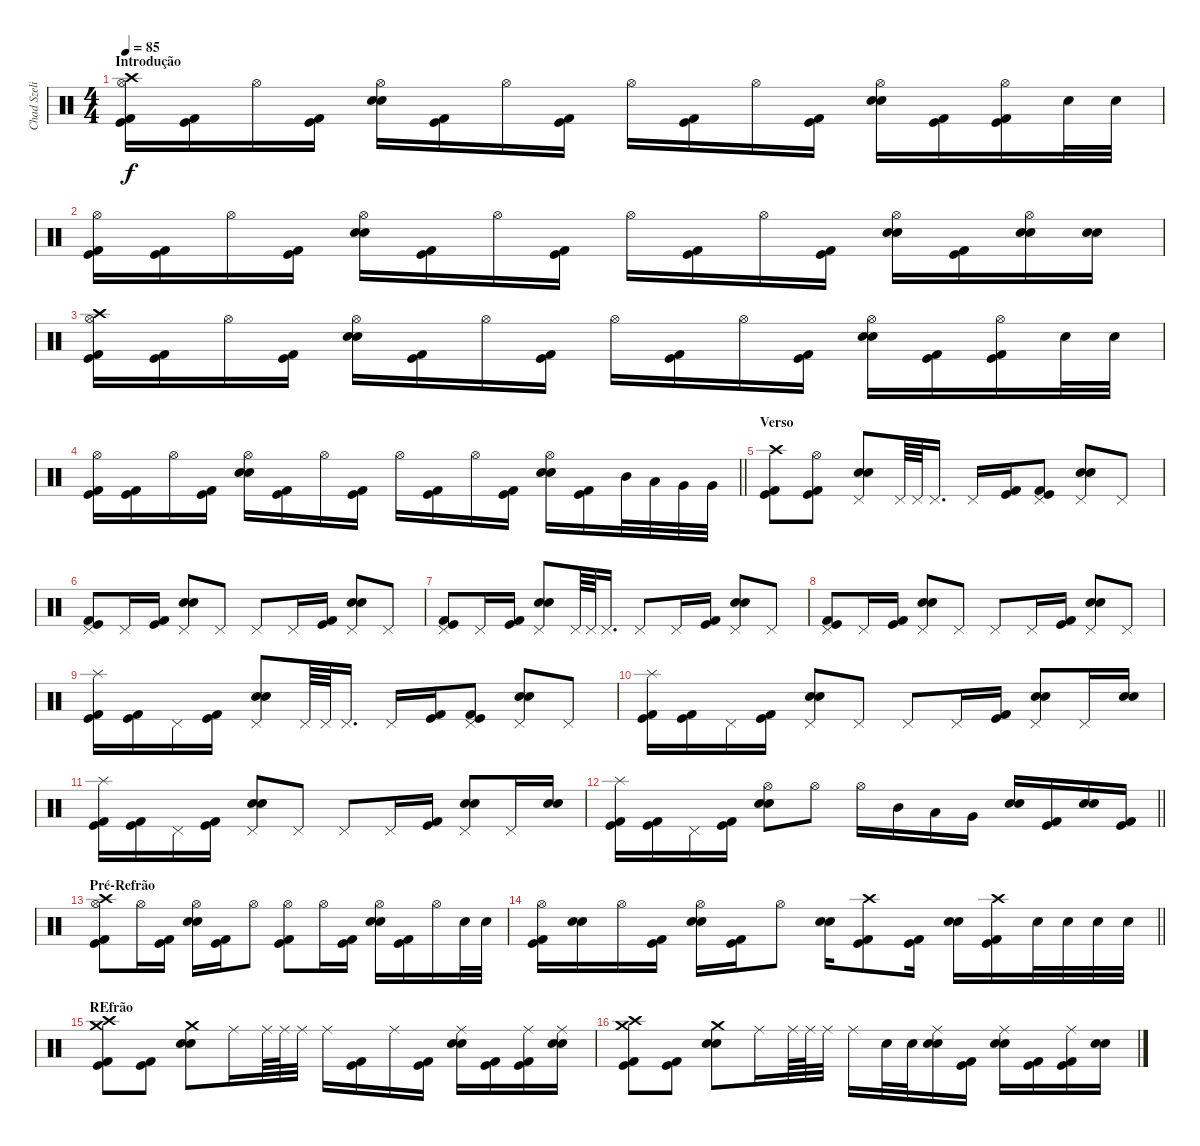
\track ("Chad Szeliga" "Chad Szeli") {instrument percussion}
\staff {score}
\articulation defaults
\ts (4 4)
\section ("" "Introdução")
\tempo 85
\clef neutral
\ks c
("Crash high (hit)" "Kick (hit) 2" "Kick (hit)" "Hi-Hat (open)").16{dy f} ("Kick (hit) 2" "Kick (hit)").16 "Hi-Hat (open)".16 ("Kick (hit) 2" "Kick (hit)").16 ("Snare (hit) 2" "Snare (hit) 2" "Hi-Hat (open)").16 ("Kick (hit) 2" "Kick (hit)").16 "Hi-Hat (open)".16 ("Kick (hit) 2" "Kick (hit)").16 "Hi-Hat (open)".16 ("Kick (hit) 2" "Kick (hit)").16 "Hi-Hat (open)".16 ("Kick (hit) 2" "Kick (hit)").16 ("Snare (hit) 2" "Snare (hit) 2" "Hi-Hat (open)").16 ("Kick (hit) 2" "Kick (hit)").16 ("Kick (hit) 2" "Kick (hit)" "Hi-Hat (open)").16 "Snare (hit) 2".32 "Snare (hit) 2".32 |
("Kick (hit) 2" "Kick (hit)" "Hi-Hat (open)").16 ("Kick (hit) 2" "Kick (hit)").16 "Hi-Hat (open)".16 ("Kick (hit) 2" "Kick (hit)").16 ("Snare (hit) 2" "Snare (hit) 2" "Hi-Hat (open)").16 ("Kick (hit) 2" "Kick (hit)").16 "Hi-Hat (open)".16 ("Kick (hit) 2" "Kick (hit)").16 "Hi-Hat (open)".16 ("Kick (hit) 2" "Kick (hit)").16 "Hi-Hat (open)".16 ("Kick (hit) 2" "Kick (hit)").16 ("Snare (hit) 2" "Snare (hit) 2" "Hi-Hat (open)").16 ("Kick (hit) 2" "Kick (hit)").16 ("Snare (hit) 2" "Snare (hit) 2" "Hi-Hat (open)").16 ("Snare (hit) 2" "Snare (hit) 2").16 |
("Crash high (hit)" "Kick (hit) 2" "Kick (hit)" "Hi-Hat (open)").16 ("Kick (hit) 2" "Kick (hit)").16 "Hi-Hat (open)".16 ("Kick (hit) 2" "Kick (hit)").16 ("Snare (hit) 2" "Snare (hit) 2" "Hi-Hat (open)").16 ("Kick (hit) 2" "Kick (hit)").16 "Hi-Hat (open)".16 ("Kick (hit) 2" "Kick (hit)").16 "Hi-Hat (open)".16 ("Kick (hit) 2" "Kick (hit)").16 "Hi-Hat (open)".16 ("Kick (hit) 2" "Kick (hit)").16 ("Snare (hit) 2" "Snare (hit) 2" "Hi-Hat (open)").16 ("Kick (hit) 2" "Kick (hit)").16 ("Kick (hit) 2" "Kick (hit)" "Hi-Hat (open)").16 "Snare (hit) 2".32 "Snare (hit) 2".32 |
\barLineRight lightlight
("Kick (hit) 2" "Kick (hit)" "Hi-Hat (open)").16 ("Kick (hit) 2" "Kick (hit)").16 "Hi-Hat (open)".16 ("Kick (hit) 2" "Kick (hit)").16 ("Snare (hit) 2" "Snare (hit) 2" "Hi-Hat (open)").16 ("Kick (hit) 2" "Kick (hit)").16 "Hi-Hat (open)".16 ("Kick (hit) 2" "Kick (hit)").16 "Hi-Hat (open)".16 ("Kick (hit) 2" "Kick (hit)").16 "Hi-Hat (open)".16 ("Kick (hit) 2" "Kick (hit)").16 ("Snare (hit) 2" "Snare (hit) 2" "Hi-Hat (open)").16 ("Kick (hit) 2" "Kick (hit)").16 "Mid Tom (hit)".32 "Low Tom (hit)".32 "Very Low Tom (hit)".32 "Very Low Tom (hit)".32 |
\section ("" "Verso")
("Crash high (hit)" "Kick (hit) 2" "Kick (hit)").8 ("Kick (hit) 2" "Kick (hit)" "Hi-Hat (open)").8 ("Snare (hit) 2" "Snare (hit) 2" "Pedal Hi-Hat (hit)").8 "Pedal Hi-Hat (hit)".64 "Pedal Hi-Hat (hit)".64 "Pedal Hi-Hat (hit)".16{d} "Pedal Hi-Hat (hit)".16 ("Kick (hit) 2" "Kick (hit)").16 ("Kick (hit) 2" "Kick (hit)" "Pedal Hi-Hat (hit)").8 ("Snare (hit) 2" "Snare (hit) 2" "Pedal Hi-Hat (hit)").8 "Pedal Hi-Hat (hit)".8 |
("Kick (hit) 2" "Kick (hit)" "Pedal Hi-Hat (hit)").8 "Pedal Hi-Hat (hit)".16 ("Kick (hit) 2" "Kick (hit)").16 ("Snare (hit) 2" "Snare (hit) 2" "Pedal Hi-Hat (hit)").8 "Pedal Hi-Hat (hit)".8 "Pedal Hi-Hat (hit)".8 "Pedal Hi-Hat (hit)".16 ("Kick (hit) 2" "Kick (hit)").16 ("Snare (hit) 2" "Snare (hit) 2" "Pedal Hi-Hat (hit)").8 "Pedal Hi-Hat (hit)".8 |
("Kick (hit) 2" "Kick (hit)" "Pedal Hi-Hat (hit)").8 "Pedal Hi-Hat (hit)".16 ("Kick (hit) 2" "Kick (hit)").16 ("Snare (hit) 2" "Snare (hit) 2" "Pedal Hi-Hat (hit)").8 "Pedal Hi-Hat (hit)".64 "Pedal Hi-Hat (hit)".64 "Pedal Hi-Hat (hit)".16{d} "Pedal Hi-Hat (hit)".8 "Pedal Hi-Hat (hit)".16 ("Kick (hit) 2" "Kick (hit)").16 ("Snare (hit) 2" "Snare (hit) 2" "Pedal Hi-Hat (hit)").8 "Pedal Hi-Hat (hit)".8 |
("Kick (hit) 2" "Kick (hit)" "Pedal Hi-Hat (hit)").8 "Pedal Hi-Hat (hit)".16 ("Kick (hit) 2" "Kick (hit)").16 ("Snare (hit) 2" "Snare (hit) 2" "Pedal Hi-Hat (hit)").8 "Pedal Hi-Hat (hit)".8 "Pedal Hi-Hat (hit)".8 "Pedal Hi-Hat (hit)".16 ("Kick (hit) 2" "Kick (hit)").16 ("Snare (hit) 2" "Snare (hit) 2" "Pedal Hi-Hat (hit)").8 "Pedal Hi-Hat (hit)".8 |
("Splash (hit)" "Kick (hit) 2" "Kick (hit)").16 ("Kick (hit) 2" "Kick (hit)").16 "Pedal Hi-Hat (hit)".16 ("Kick (hit) 2" "Kick (hit)").16 ("Snare (hit) 2" "Snare (hit) 2" "Pedal Hi-Hat (hit)").8 "Pedal Hi-Hat (hit)".64 "Pedal Hi-Hat (hit)".64 "Pedal Hi-Hat (hit)".16{d} "Pedal Hi-Hat (hit)".16 ("Kick (hit) 2" "Kick (hit)").16 ("Kick (hit) 2" "Kick (hit)" "Pedal Hi-Hat (hit)").8 ("Snare (hit) 2" "Snare (hit) 2" "Pedal Hi-Hat (hit)").8 "Pedal Hi-Hat (hit)".8 |
("Splash (hit)" "Kick (hit) 2" "Kick (hit)").16 ("Kick (hit) 2" "Kick (hit)").16 "Pedal Hi-Hat (hit)".16 ("Kick (hit) 2" "Kick (hit)").16 ("Snare (hit) 2" "Snare (hit) 2" "Pedal Hi-Hat (hit)").8 "Pedal Hi-Hat (hit)".8 "Pedal Hi-Hat (hit)".8 "Pedal Hi-Hat (hit)".16 ("Kick (hit) 2" "Kick (hit)").16 ("Snare (hit) 2" "Snare (hit) 2" "Pedal Hi-Hat (hit)").8 "Pedal Hi-Hat (hit)".16 ("Snare (hit) 2" "Snare (hit) 2").16 |
("Splash (hit)" "Kick (hit) 2" "Kick (hit)").16 ("Kick (hit) 2" "Kick (hit)").16 "Pedal Hi-Hat (hit)".16 ("Kick (hit) 2" "Kick (hit)").16 ("Snare (hit) 2" "Snare (hit) 2" "Pedal Hi-Hat (hit)").8 "Pedal Hi-Hat (hit)".8 "Pedal Hi-Hat (hit)".8 "Pedal Hi-Hat (hit)".16 ("Kick (hit) 2" "Kick (hit)").16 ("Snare (hit) 2" "Snare (hit) 2" "Pedal Hi-Hat (hit)").8 "Pedal Hi-Hat (hit)".16 ("Snare (hit) 2" "Snare (hit) 2").16 |
\barLineRight lightlight
("Splash (hit)" "Kick (hit) 2" "Kick (hit)").16 ("Kick (hit) 2" "Kick (hit)").16 "Pedal Hi-Hat (hit)".16 ("Kick (hit) 2" "Kick (hit)").16 ("Snare (hit) 2" "Snare (hit) 2" "Hi-Hat (open)").8 "Hi-Hat (open)".8 "Hi-Hat (open)".16 "Mid Tom (hit)".16 "Low Tom (hit)".16 "Very Low Tom (hit)".16 ("Snare (hit) 2" "Snare (hit) 2").16 ("Kick (hit) 2" "Kick (hit)").16 ("Snare (hit) 2" "Snare (hit) 2").16 ("Kick (hit) 2" "Kick (hit)").16 |
\section ("" "Pré-Refrão")
("Crash high (hit)" "Kick (hit) 2" "Kick (hit)" "Hi-Hat (open)").8 "Hi-Hat (open)".16 ("Kick (hit) 2" "Kick (hit)").16 ("Snare (hit) 2" "Snare (hit) 2" "Hi-Hat (open)").16 ("Kick (hit) 2" "Kick (hit)").16 "Hi-Hat (open)".8 ("Kick (hit) 2" "Kick (hit)" "Hi-Hat (open)").8 "Hi-Hat (open)".16 ("Kick (hit) 2" "Kick (hit)").16 ("Snare (hit) 2" "Snare (hit) 2" "Hi-Hat (open)").16 ("Kick (hit) 2" "Kick (hit)").16 "Hi-Hat (open)".16 "Snare (hit) 2".32 "Snare (hit) 2".32 |
\barLineRight lightlight
("Kick (hit) 2" "Kick (hit)" "Hi-Hat (open)").16 ("Snare (hit) 2" "Snare (hit) 2").16 "Hi-Hat (open)".16 ("Kick (hit) 2" "Kick (hit)").16 ("Snare (hit) 2" "Snare (hit) 2" "Hi-Hat (open)").16 ("Kick (hit) 2" "Kick (hit)").16 "Hi-Hat (open)".8 ("Snare (hit) 2" "Snare (hit) 2").16 ("Crash high (hit)" "Kick (hit) 2" "Kick (hit)").8 ("Kick (hit) 2" "Kick (hit)").16 ("Snare (hit) 2" "Snare (hit) 2").16 ("Crash high (hit)" "Kick (hit) 2" "Kick (hit)").16 "Snare (hit) 2".32 "Snare (hit) 2".32 "Snare (hit) 2".32 "Snare (hit) 2".32 |
\section ("" "REfrão")
("Crash high (hit)" "Kick (hit) 2" "Kick (hit)" "Crash medium (hit)").8 ("Kick (hit) 2" "Kick (hit)").8 ("Crash medium (hit)" "Snare (hit) 2" "Snare (hit) 2").8 "Ride (middle)".16 "Ride (middle)".64 "Ride (middle)".64 "Ride (middle)".32 "Ride (middle)".16 ("Kick (hit) 2" "Kick (hit)").16 "Ride (middle)".16 ("Kick (hit) 2" "Kick (hit)").16 ("Ride (middle)" "Snare (hit) 2" "Snare (hit) 2").16 ("Kick (hit) 2" "Kick (hit)").16 ("Ride (middle)" "Kick (hit) 2" "Kick (hit)").16 ("Ride (middle)" "Snare (hit) 2" "Snare (hit) 2").16 |
("Crash high (hit)" "Kick (hit) 2" "Kick (hit)" "Crash medium (hit)").8 ("Kick (hit) 2" "Kick (hit)").8 ("Crash medium (hit)" "Snare (hit) 2" "Snare (hit) 2").8 "Ride (middle)".16 "Ride (middle)".64 "Ride (middle)".64 "Ride (middle)".32 "Ride (middle)".16 "Snare (hit) 2".32 "Snare (hit) 2".32 ("Ride (middle)" "Snare (hit) 2" "Snare (hit) 2").16 ("Kick (hit) 2" "Kick (hit)").16 ("Ride (middle)" "Snare (hit) 2" "Snare (hit) 2").16 ("Kick (hit) 2" "Kick (hit)").16 ("Ride (middle)" "Kick (hit) 2" "Kick (hit)").16 ("Snare (hit) 2" "Snare (hit) 2").16
